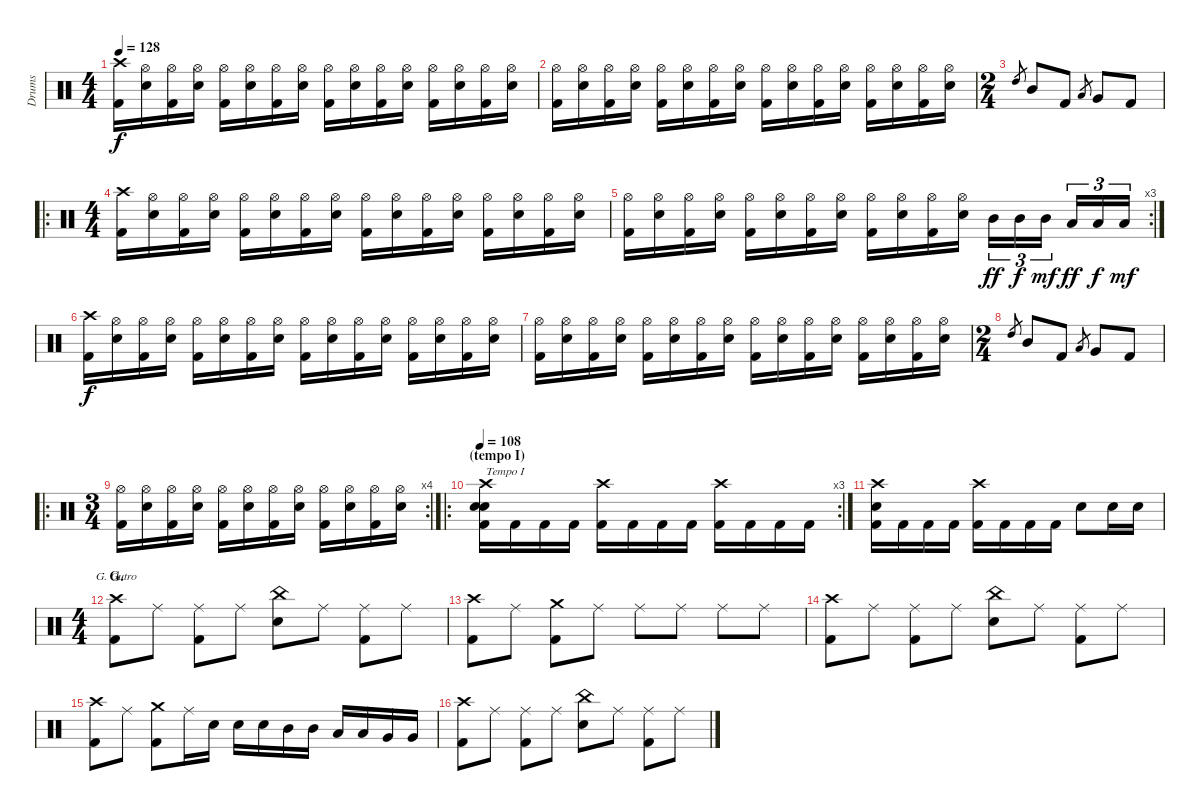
\track ("Drums" "Drums") {instrument percussion}
\staff {score}
\articulation defaults
\chord ("G. Outro")
\ts (4 4)
\tempo 128
\clef neutral
\ks c
("Crash high (hit)" "Kick (hit) 2").16{dy f} ("Hi-Hat (open)" "Electric Snare (hit)").16 ("Hi-Hat (open)" "Kick (hit) 2").16 ("Hi-Hat (open)" "Electric Snare (hit)").16 ("Hi-Hat (open)" "Kick (hit) 2").16 ("Hi-Hat (open)" "Electric Snare (hit)").16 ("Hi-Hat (open)" "Kick (hit) 2").16 ("Hi-Hat (open)" "Electric Snare (hit)").16 ("Hi-Hat (open)" "Kick (hit) 2").16 ("Hi-Hat (open)" "Electric Snare (hit)").16 ("Hi-Hat (open)" "Kick (hit) 2").16 ("Hi-Hat (open)" "Electric Snare (hit)").16 ("Hi-Hat (open)" "Kick (hit) 2").16 ("Hi-Hat (open)" "Electric Snare (hit)").16 ("Hi-Hat (open)" "Kick (hit) 2").16 ("Hi-Hat (open)" "Electric Snare (hit)").16 |
("Hi-Hat (open)" "Kick (hit) 2").16 ("Hi-Hat (open)" "Electric Snare (hit)").16 ("Hi-Hat (open)" "Kick (hit) 2").16 ("Hi-Hat (open)" "Electric Snare (hit)").16 ("Hi-Hat (open)" "Kick (hit) 2").16 ("Hi-Hat (open)" "Electric Snare (hit)").16 ("Hi-Hat (open)" "Kick (hit) 2").16 ("Hi-Hat (open)" "Electric Snare (hit)").16 ("Hi-Hat (open)" "Kick (hit) 2").16 ("Hi-Hat (open)" "Electric Snare (hit)").16 ("Hi-Hat (open)" "Kick (hit) 2").16 ("Hi-Hat (open)" "Electric Snare (hit)").16 ("Hi-Hat (open)" "Kick (hit) 2").16 ("Hi-Hat (open)" "Electric Snare (hit)").16 ("Hi-Hat (open)" "Kick (hit) 2").16 ("Hi-Hat (open)" "Electric Snare (hit)").16 |
\ts (2 4)
"High Tom (hit)".8{gr} "Mid Tom (hit)".8 "Kick (hit) 2".8 "Low Tom (hit)".8{gr} "Very Low Tom (hit)".8 "Kick (hit) 2".8 |
\ro
\ts (4 4)
("Crash high (hit)" "Kick (hit) 2").16 ("Hi-Hat (open)" "Electric Snare (hit)").16 ("Hi-Hat (open)" "Kick (hit) 2").16 ("Hi-Hat (open)" "Electric Snare (hit)").16 ("Hi-Hat (open)" "Kick (hit) 2").16 ("Hi-Hat (open)" "Electric Snare (hit)").16 ("Hi-Hat (open)" "Kick (hit) 2").16 ("Hi-Hat (open)" "Electric Snare (hit)").16 ("Hi-Hat (open)" "Kick (hit) 2").16 ("Hi-Hat (open)" "Electric Snare (hit)").16 ("Hi-Hat (open)" "Kick (hit) 2").16 ("Hi-Hat (open)" "Electric Snare (hit)").16 ("Hi-Hat (open)" "Kick (hit) 2").16 ("Hi-Hat (open)" "Electric Snare (hit)").16 ("Hi-Hat (open)" "Kick (hit) 2").16 ("Hi-Hat (open)" "Electric Snare (hit)").16 |
\rc 3
("Hi-Hat (open)" "Kick (hit) 2").16 ("Hi-Hat (open)" "Electric Snare (hit)").16 ("Hi-Hat (open)" "Kick (hit) 2").16 ("Hi-Hat (open)" "Electric Snare (hit)").16 ("Hi-Hat (open)" "Kick (hit) 2").16 ("Hi-Hat (open)" "Electric Snare (hit)").16 ("Hi-Hat (open)" "Kick (hit) 2").16 ("Hi-Hat (open)" "Electric Snare (hit)").16 ("Hi-Hat (open)" "Kick (hit) 2").16 ("Hi-Hat (open)" "Electric Snare (hit)").16 ("Hi-Hat (open)" "Kick (hit) 2").16 ("Hi-Hat (open)" "Electric Snare (hit)").16 "Mid Tom (hit)".16{tu (3 2) dy ff} "Mid Tom (hit)".16{tu (3 2) dy f} "Mid Tom (hit)".16{tu (3 2) dy mf} "Low Tom (hit)".16{tu (3 2) dy ff} "Low Tom (hit)".16{tu (3 2) dy f} "Low Tom (hit)".16{tu (3 2) dy mf} |
("Crash high (hit)" "Kick (hit) 2").16{dy f} ("Hi-Hat (open)" "Electric Snare (hit)").16 ("Hi-Hat (open)" "Kick (hit) 2").16 ("Hi-Hat (open)" "Electric Snare (hit)").16 ("Hi-Hat (open)" "Kick (hit) 2").16 ("Hi-Hat (open)" "Electric Snare (hit)").16 ("Hi-Hat (open)" "Kick (hit) 2").16 ("Hi-Hat (open)" "Electric Snare (hit)").16 ("Hi-Hat (open)" "Kick (hit) 2").16 ("Hi-Hat (open)" "Electric Snare (hit)").16 ("Hi-Hat (open)" "Kick (hit) 2").16 ("Hi-Hat (open)" "Electric Snare (hit)").16 ("Hi-Hat (open)" "Kick (hit) 2").16 ("Hi-Hat (open)" "Electric Snare (hit)").16 ("Hi-Hat (open)" "Kick (hit) 2").16 ("Hi-Hat (open)" "Electric Snare (hit)").16 |
("Hi-Hat (open)" "Kick (hit) 2").16 ("Hi-Hat (open)" "Electric Snare (hit)").16 ("Hi-Hat (open)" "Kick (hit) 2").16 ("Hi-Hat (open)" "Electric Snare (hit)").16 ("Hi-Hat (open)" "Kick (hit) 2").16 ("Hi-Hat (open)" "Electric Snare (hit)").16 ("Hi-Hat (open)" "Kick (hit) 2").16 ("Hi-Hat (open)" "Electric Snare (hit)").16 ("Hi-Hat (open)" "Kick (hit) 2").16 ("Hi-Hat (open)" "Electric Snare (hit)").16 ("Hi-Hat (open)" "Kick (hit) 2").16 ("Hi-Hat (open)" "Electric Snare (hit)").16 ("Hi-Hat (open)" "Kick (hit) 2").16 ("Hi-Hat (open)" "Electric Snare (hit)").16 ("Hi-Hat (open)" "Kick (hit) 2").16 ("Hi-Hat (open)" "Electric Snare (hit)").16 |
\ts (2 4)
"High Tom (hit)".8{gr} "Mid Tom (hit)".8 "Kick (hit) 2".8 "Low Tom (hit)".8{gr} "Very Low Tom (hit)".8 "Kick (hit) 2".8 |
\ro
\rc 4
\ts (3 4)
("Hi-Hat (open)" "Kick (hit) 2").16 ("Hi-Hat (open)" "Electric Snare (hit)").16 ("Hi-Hat (open)" "Kick (hit) 2").16 ("Hi-Hat (open)" "Electric Snare (hit)").16 ("Hi-Hat (open)" "Kick (hit) 2").16 ("Hi-Hat (open)" "Electric Snare (hit)").16 ("Hi-Hat (open)" "Kick (hit) 2").16 ("Hi-Hat (open)" "Electric Snare (hit)").16 ("Hi-Hat (open)" "Kick (hit) 2").16 ("Hi-Hat (open)" "Electric Snare (hit)").16 ("Hi-Hat (open)" "Kick (hit) 2").16 ("Hi-Hat (open)" "Electric Snare (hit)").16 |
\ro
\rc 3
\section ("" "(tempo I)")
\tempo 108
("Crash high (hit)" "Electric Snare (hit)" "Snare (hit) 2" "Kick (hit) 2").16{txt "Tempo I"} "Kick (hit) 2".16 "Kick (hit) 2".16 "Kick (hit) 2".16 ("Crash high (hit)" "Kick (hit) 2").16 "Kick (hit) 2".16 "Kick (hit) 2".16 "Kick (hit) 2".16 ("Crash high (hit)" "Kick (hit) 2").16 "Kick (hit) 2".16 "Kick (hit) 2".16 "Kick (hit) 2".16 |
("Crash high (hit)" "Electric Snare (hit)" "Kick (hit) 2").16 "Kick (hit) 2".16 "Kick (hit) 2".16 "Kick (hit) 2".16 ("Crash high (hit)" "Kick (hit) 2").16 "Kick (hit) 2".16 "Kick (hit) 2".16 "Kick (hit) 2".16 "Electric Snare (hit)".8 "Electric Snare (hit)".16 "Electric Snare (hit)".16 |
\ts (4 4)
\section ("" "G.")
("Crash high (hit)" "Kick (hit) 2").8{ch "G. Outro"} "Ride (middle)".8 ("Ride (middle)" "Kick (hit) 2").8 "Ride (middle)".8 ("China (hit)" "Electric Snare (hit)").8 "Ride (middle)".8 ("Ride (middle)" "Kick (hit) 2").8 "Ride (middle)".8 |
("Crash high (hit)" "Kick (hit) 2").8 "Ride (middle)".8 ("Crash medium (hit)" "Kick (hit) 2").8 "Ride (middle)".8 "Ride (middle)".8 "Ride (middle)".8 "Ride (middle)".8 "Ride (middle)".8 |
("Crash high (hit)" "Kick (hit) 2").8 "Ride (middle)".8 ("Ride (middle)" "Kick (hit) 2").8 "Ride (middle)".8 ("China (hit)" "Electric Snare (hit)").8 "Ride (middle)".8 ("Ride (middle)" "Kick (hit) 2").8 "Ride (middle)".8 |
("Crash high (hit)" "Kick (hit) 2").8 "Ride (middle)".8 ("Crash medium (hit)" "Kick (hit) 2").8 "Ride (middle)".16 "Electric Snare (hit)".16 "Electric Snare (hit)".16 "Electric Snare (hit)".16 "Mid Tom (hit)".16 "Mid Tom (hit)".16 "Low Tom (hit)".16 "Low Tom (hit)".16 "Very Low Tom (hit)".16 "Very Low Tom (hit)".16 |
("Crash high (hit)" "Kick (hit) 2").8 "Ride (middle)".8 ("Ride (middle)" "Kick (hit) 2").8 "Ride (middle)".8 ("China (hit)" "Electric Snare (hit)").8 "Ride (middle)".8 ("Ride (middle)" "Kick (hit) 2").8 "Ride (middle)".8
